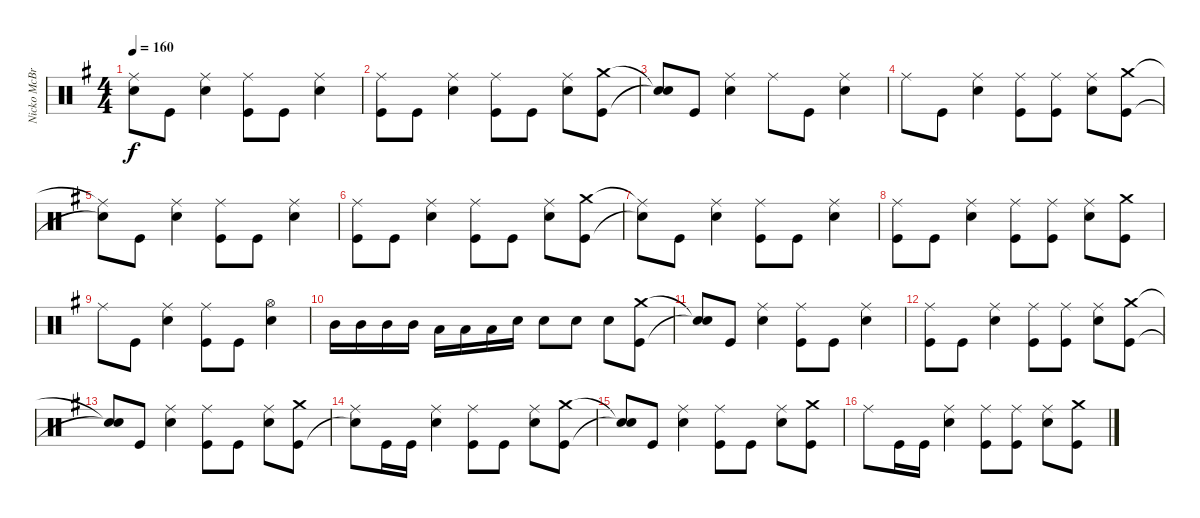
\track ("Nicko McBrain" "Nicko McBr") {instrument percussion}
\staff {score}
\articulation defaults
\ts (4 4)
\tempo 160
\clef neutral
\ks g
("Snare (hit)"{t} "Ride (middle)"{t}).8{dy f} "Kick (hit)".8 ("Electric Snare (hit)" "Ride (middle)").4 ("Kick (hit)" "Ride (middle)").8 "Kick (hit)".8 ("Electric Snare (hit)" "Ride (middle)").4 |
("Kick (hit)" "Ride (middle)").8 "Kick (hit)".8 ("Electric Snare (hit)" "Ride (middle)").4 ("Kick (hit)" "Ride (middle)").8 "Kick (hit)".8 ("Electric Snare (hit)" "Ride (middle)").8 ("Kick (hit)" "Crash medium (hit)").8 |
("Snare (hit)"{t} "Snare (hit)"{t}).8 "Kick (hit)".8 ("Electric Snare (hit)" "Ride (middle)").4 "Ride (middle)".8 "Kick (hit)".8 ("Electric Snare (hit)" "Ride (middle)").4 |
"Ride (middle)".8 "Kick (hit)".8 ("Electric Snare (hit)" "Ride (middle)").4 ("Kick (hit)" "Ride (middle)").8 ("Kick (hit)" "Ride (middle)").8 ("Electric Snare (hit)" "Ride (middle)").8 ("Kick (hit)" "Crash medium (hit)").8 |
("Snare (hit)"{t} "Ride (middle)"{t}).8 "Kick (hit)".8 ("Electric Snare (hit)" "Ride (middle)").4 ("Kick (hit)" "Ride (middle)").8 "Kick (hit)".8 ("Electric Snare (hit)" "Ride (middle)").4 |
("Kick (hit)" "Ride (middle)").8 "Kick (hit)".8 ("Electric Snare (hit)" "Ride (middle)").4 ("Kick (hit)" "Ride (middle)").8 "Kick (hit)".8 ("Electric Snare (hit)" "Ride (middle)").8 ("Kick (hit)" "Crash medium (hit)").8 |
("Snare (hit)"{t} "Ride (middle)"{t}).8 "Kick (hit)".8 ("Electric Snare (hit)" "Ride (middle)").4 ("Kick (hit)" "Ride (middle)").8 "Kick (hit)".8 ("Electric Snare (hit)" "Ride (middle)").4 |
("Kick (hit)" "Ride (middle)").8 "Kick (hit)".8 ("Electric Snare (hit)" "Ride (middle)").4 ("Kick (hit)" "Ride (middle)").8 ("Kick (hit)" "Ride (middle)").8 ("Electric Snare (hit)" "Ride (middle)").8 ("Kick (hit)" "Crash medium (hit)").8 |
"Ride (middle)".8 "Kick (hit)".8 ("Electric Snare (hit)" "Ride (middle)").4 ("Kick (hit)" "Ride (middle)").8 "Kick (hit)".8 ("Electric Snare (hit)" "Hi-Hat (open)").4 |
"Mid Tom (hit)".16 "Mid Tom (hit)".16 "Mid Tom (hit)".16 "Mid Tom (hit)".16 "Low Tom (hit)".16 "Low Tom (hit)".16 "Low Tom (hit)".16 "Electric Snare (hit)".16 "Electric Snare (hit)".8 "Electric Snare (hit)".8 "Electric Snare (hit)".8 ("Kick (hit)" "Crash medium (hit)").8 |
("Snare (hit)"{t} "Snare (hit)"{t}).8 "Kick (hit)".8 ("Electric Snare (hit)" "Ride (middle)").4 ("Kick (hit)" "Ride (middle)").8 "Kick (hit)".8 ("Electric Snare (hit)" "Ride (middle)").4 |
("Kick (hit)" "Ride (middle)").8 "Kick (hit)".8 ("Electric Snare (hit)" "Ride (middle)").4 ("Kick (hit)" "Ride (middle)").8 ("Kick (hit)" "Ride (middle)").8 ("Electric Snare (hit)" "Ride (middle)").8 ("Kick (hit)" "Crash medium (hit)").8 |
("Snare (hit)"{t} "Snare (hit)"{t}).8 "Kick (hit)".8 ("Electric Snare (hit)" "Ride (middle)").4 ("Kick (hit)" "Ride (middle)").8 "Kick (hit)".8 ("Electric Snare (hit)" "Ride (middle)").8 ("Kick (hit)" "Crash medium (hit)").8 |
("Snare (hit)"{t} "Ride (middle)").8 "Kick (hit)".16 "Kick (hit)".16 ("Electric Snare (hit)" "Ride (middle)").4 ("Kick (hit)" "Ride (middle)").8 "Kick (hit)".8 ("Electric Snare (hit)" "Ride (middle)").8 ("Kick (hit)" "Crash medium (hit)").8 |
("Snare (hit)"{t} "Snare (hit)"{t}).8 "Kick (hit)".8 ("Electric Snare (hit)" "Ride (middle)").4 ("Kick (hit)" "Ride (middle)").8 "Kick (hit)".8 ("Electric Snare (hit)" "Ride (middle)").8 ("Kick (hit)" "Crash medium (hit)").8 |
"Ride (middle)".8 "Kick (hit)".16 "Kick (hit)".16 ("Electric Snare (hit)" "Ride (middle)").4 ("Kick (hit)" "Ride (middle)").8 ("Kick (hit)" "Ride (middle)").8 ("Electric Snare (hit)" "Ride (middle)").8 ("Kick (hit)" "Crash medium (hit)").8
